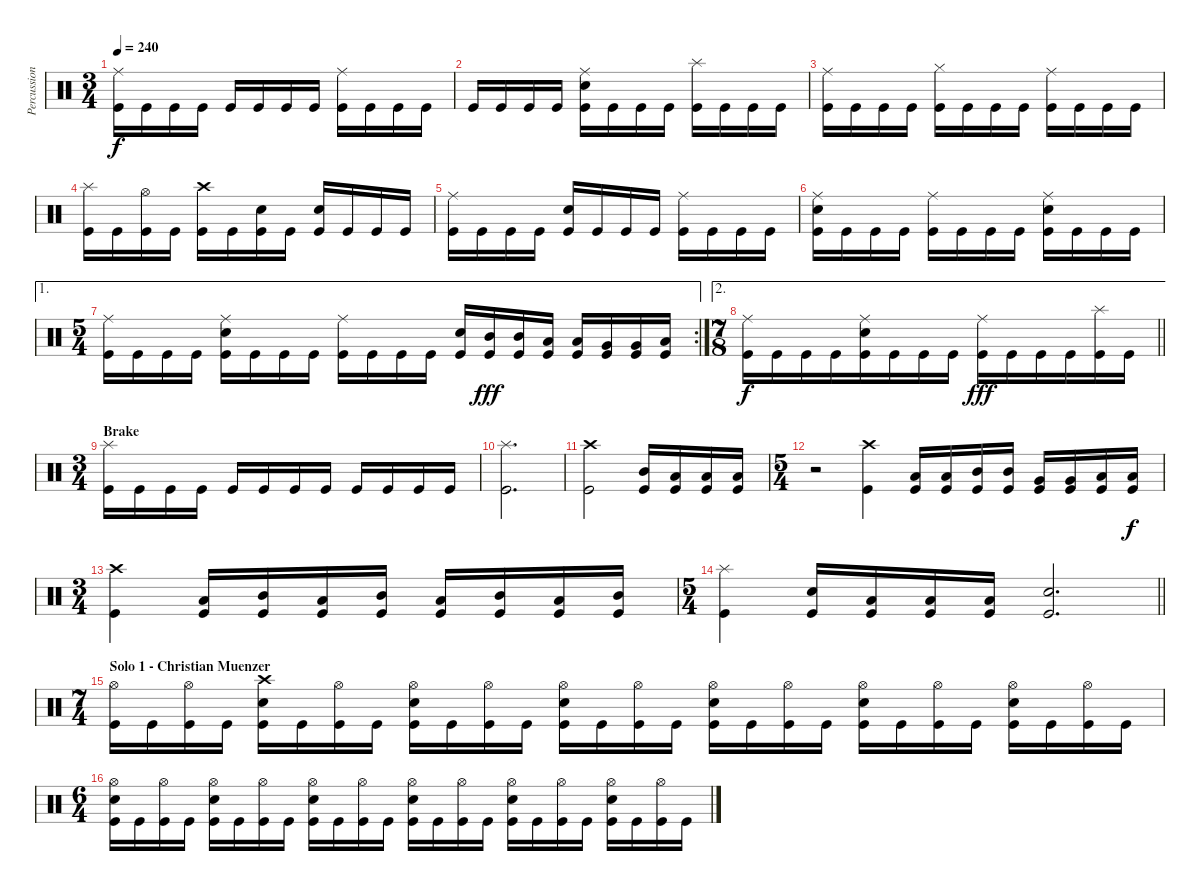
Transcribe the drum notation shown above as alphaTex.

\track ("Percussion" "Percussion") {instrument percussion}
\staff {score}
\articulation defaults
\ts (3 4)
\tempo 240
\clef neutral
\ks c
("Ride (middle)" "Kick (hit)").16{dy f} "Kick (hit)".16 "Kick (hit)".16 "Kick (hit)".16 "Kick (hit)".16 "Kick (hit)".16 "Kick (hit)".16 "Kick (hit)".16 ("Ride (middle)" "Kick (hit)").16 "Kick (hit)".16 "Kick (hit)".16 "Kick (hit)".16 |
"Kick (hit)".16 "Kick (hit)".16 "Kick (hit)".16 "Kick (hit)".16 ("Ride (middle)" "Snare (hit) 2" "Kick (hit)").16 "Kick (hit)".16 "Kick (hit)".16 "Kick (hit)".16 ("Splash (hit)" "Kick (hit)").16 "Kick (hit)".16 "Kick (hit)".16 "Kick (hit)".16 |
("Ride (middle)" "Kick (hit)").16 "Kick (hit)".16 "Kick (hit)".16 "Kick (hit)".16 ("Hi-Hat (closed)" "Kick (hit)").16 "Kick (hit)".16 "Kick (hit)".16 "Kick (hit)".16 ("Ride (middle)" "Kick (hit)").16 "Kick (hit)".16 "Kick (hit)".16 "Kick (hit)".16 |
("Splash (hit)" "Kick (hit)").16 "Kick (hit)".16 ("Hi-Hat (open)" "Kick (hit)").16 "Kick (hit)".16 ("Crash high (hit)" "Kick (hit)").16 "Kick (hit)".16 ("Snare (hit) 2" "Kick (hit)").16 "Kick (hit)".16 ("Snare (hit) 2" "Kick (hit)").16 "Kick (hit)".16 "Kick (hit)".16 "Kick (hit)".16 |
("Ride (middle)" "Kick (hit)").16 "Kick (hit)".16 "Kick (hit)".16 "Kick (hit)".16 ("Snare (hit) 2" "Kick (hit)").16 "Kick (hit)".16 "Kick (hit)".16 "Kick (hit)".16 ("Ride (middle)" "Kick (hit)").16 "Kick (hit)".16 "Kick (hit)".16 "Kick (hit)".16 |
("Ride (middle)" "Snare (hit) 2" "Kick (hit)").16 "Kick (hit)".16 "Kick (hit)".16 "Kick (hit)".16 ("Ride (middle)" "Kick (hit)").16 "Kick (hit)".16 "Kick (hit)".16 "Kick (hit)".16 ("Ride (middle)" "Snare (hit) 2" "Kick (hit)").16 "Kick (hit)".16 "Kick (hit)".16 "Kick (hit)".16 |
\ae 1
\rc 2
\ts (5 4)
("Ride (middle)" "Kick (hit)").16 "Kick (hit)".16 "Kick (hit)".16 "Kick (hit)".16 ("Ride (middle)" "Snare (hit) 2" "Kick (hit)").16 "Kick (hit)".16 "Kick (hit)".16 "Kick (hit)".16 ("Ride (middle)" "Kick (hit)").16 "Kick (hit)".16 "Kick (hit)".16 "Kick (hit)".16 ("Snare (hit) 2" "Kick (hit)").16 ("Mid Tom (hit)" "Kick (hit)").16{dy fff} ("Mid Tom (hit)" "Kick (hit)").16 ("Low Tom (hit)" "Kick (hit)").16 ("Low Tom (hit)" "Kick (hit)").16 ("Very Low Tom (hit)" "Kick (hit)").16 ("Very Low Tom (hit)" "Kick (hit)").16 ("Low Floor Tom (hit)" "Kick (hit)").16 |
\ae 2
\ts (7 8)
\barLineRight lightlight
("Ride (middle)" "Kick (hit)").16{dy f} "Kick (hit)".16 "Kick (hit)".16 "Kick (hit)".16 ("Ride (middle)" "Snare (hit) 2" "Kick (hit)").16 "Kick (hit)".16 "Kick (hit)".16 "Kick (hit)".16 ("Ride (middle)" "Kick (hit)").16{dy fff} "Kick (hit)".16 "Kick (hit)".16 "Kick (hit)".16 ("Splash (hit)" "Kick (hit)").16 "Kick (hit)".16 |
\ts (3 4)
\section ("" "Brake")
("Splash (hit)" "Kick (hit)").16 "Kick (hit)".16 "Kick (hit)".16 "Kick (hit)".16 "Kick (hit)".16 "Kick (hit)".16 "Kick (hit)".16 "Kick (hit)".16 "Kick (hit)".16 "Kick (hit)".16 "Kick (hit)".16 "Kick (hit)".16 |
("Splash (hit)" "Kick (hit)").2{d} |
("Crash high (hit)" "Kick (hit)").2 ("Mid Tom (hit)" "Kick (hit)").16 ("Low Tom (hit)" "Kick (hit)").16 ("Low Tom (hit)" "Kick (hit)").16 ("Low Tom (hit)" "Kick (hit)").16 |
\ts (5 4)
r.2 ("Crash high (hit)" "Kick (hit)").4 ("Low Tom (hit)" "Kick (hit)").16 ("Low Tom (hit)" "Kick (hit)").16 ("Mid Tom (hit)" "Kick (hit)").16 ("Mid Tom (hit)" "Kick (hit)").16 ("Very Low Tom (hit)" "Kick (hit)").16 ("Very Low Tom (hit)" "Kick (hit)").16 ("Low Tom (hit)" "Kick (hit)").16 ("Low Tom (hit)" "Kick (hit)").16{dy f} |
\ts (3 4)
("Crash high (hit)" "Kick (hit)").4 ("Low Tom (hit)" "Kick (hit)").16 ("Mid Tom (hit)" "Kick (hit)").16 ("Low Tom (hit)" "Kick (hit)").16 ("Mid Tom (hit)" "Kick (hit)").16 ("Low Tom (hit)" "Kick (hit)").16 ("Mid Tom (hit)" "Kick (hit)").16 ("Low Tom (hit)" "Kick (hit)").16 ("Mid Tom (hit)" "Kick (hit)").16 |
\ts (5 4)
\barLineRight lightlight
("Splash (hit)" "Kick (hit)").4 ("Snare (hit) 2" "Kick (hit)").16 ("Low Tom (hit)" "Kick (hit)").16 ("Low Tom (hit)" "Kick (hit)").16 ("Low Tom (hit)" "Kick (hit)").16 ("Snare (hit) 2" "Kick (hit)").2{d} |
\ts (7 4)
\section ("" "Solo 1 - Christian Muenzer")
("Hi-Hat (open)" "Kick (hit)").16 "Kick (hit)".16 ("Hi-Hat (open)" "Kick (hit)").16 "Kick (hit)".16 ("Crash high (hit)" "Snare (hit) 2" "Kick (hit)").16 "Kick (hit)".16 ("Hi-Hat (open)" "Kick (hit)").16 "Kick (hit)".16 ("Hi-Hat (open)" "Snare (hit) 2" "Kick (hit)").16 "Kick (hit)".16 ("Hi-Hat (open)" "Kick (hit)").16 "Kick (hit)".16 ("Hi-Hat (open)" "Snare (hit) 2" "Kick (hit)").16 "Kick (hit)".16 ("Hi-Hat (open)" "Kick (hit)").16 "Kick (hit)".16 ("Hi-Hat (open)" "Snare (hit) 2" "Kick (hit)").16 "Kick (hit)".16 ("Hi-Hat (open)" "Kick (hit)").16 "Kick (hit)".16 ("Hi-Hat (open)" "Snare (hit) 2" "Kick (hit)").16 "Kick (hit)".16 ("Hi-Hat (open)" "Kick (hit)").16 "Kick (hit)".16 ("Hi-Hat (open)" "Snare (hit) 2" "Kick (hit)").16 "Kick (hit)".16 ("Hi-Hat (open)" "Kick (hit)").16 "Kick (hit)".16 |
\ts (6 4)
("Hi-Hat (open)" "Snare (hit) 2" "Kick (hit)").16 "Kick (hit)".16 ("Hi-Hat (open)" "Kick (hit)").16 "Kick (hit)".16 ("Hi-Hat (open)" "Snare (hit) 2" "Kick (hit)").16 "Kick (hit)".16 ("Hi-Hat (open)" "Kick (hit)").16 "Kick (hit)".16 ("Hi-Hat (open)" "Snare (hit) 2" "Kick (hit)").16 "Kick (hit)".16 ("Hi-Hat (open)" "Kick (hit)").16 "Kick (hit)".16 ("Hi-Hat (open)" "Snare (hit) 2" "Kick (hit)").16 "Kick (hit)".16 ("Hi-Hat (open)" "Kick (hit)").16 "Kick (hit)".16 ("Hi-Hat (open)" "Snare (hit) 2" "Kick (hit)").16 "Kick (hit)".16 ("Hi-Hat (open)" "Kick (hit)").16 "Kick (hit)".16 ("Hi-Hat (open)" "Snare (hit) 2" "Kick (hit)").16 "Kick (hit)".16 ("Hi-Hat (open)" "Kick (hit)").16 "Kick (hit)".16
